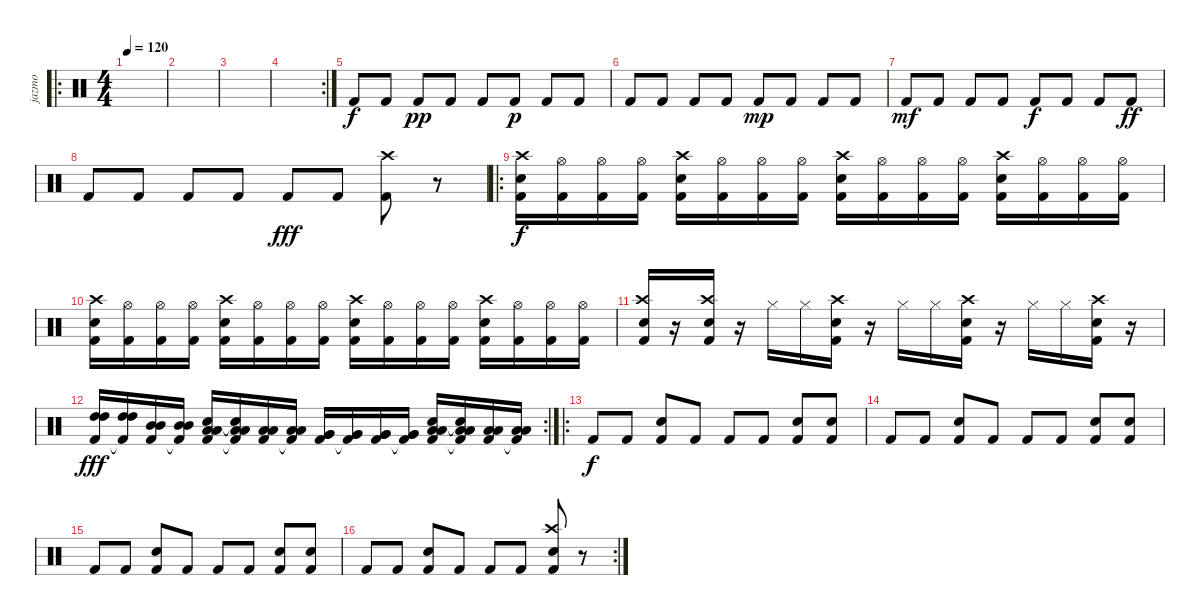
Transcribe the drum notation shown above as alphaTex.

\track ("jazmo" "jazmo") {instrument percussion}
\staff {score}
\articulation defaults
\ro
\ts (4 4)
\tempo 120
\clef neutral
\ks c
|
|
|
\rc 2
|
"Kick (hit) 2".8 "Kick (hit) 2".8 "Kick (hit) 2".8{dy pp} "Kick (hit) 2".8 "Kick (hit) 2".8 "Kick (hit) 2".8{dy p} "Kick (hit) 2".8 "Kick (hit) 2".8 |
"Kick (hit) 2".8 "Kick (hit) 2".8 "Kick (hit) 2".8 "Kick (hit) 2".8 "Kick (hit) 2".8{dy mp} "Kick (hit) 2".8 "Kick (hit) 2".8 "Kick (hit) 2".8 |
"Kick (hit) 2".8{dy mf} "Kick (hit) 2".8 "Kick (hit) 2".8 "Kick (hit) 2".8 "Kick (hit) 2".8{dy f} "Kick (hit) 2".8 "Kick (hit) 2".8 "Kick (hit) 2".8{dy ff} |
"Kick (hit) 2".8 "Kick (hit) 2".8 "Kick (hit) 2".8 "Kick (hit) 2".8 "Kick (hit) 2".8{dy fff} "Kick (hit) 2".8 ("Crash high (hit)" "Kick (hit) 2").8 r.8 |
\ro
("Crash high (hit)" "Electric Snare (hit)" "Kick (hit) 2").16{dy f} ("Hi-Hat (open)" "Kick (hit) 2").16 ("Hi-Hat (open)" "Kick (hit) 2").16 ("Hi-Hat (open)" "Kick (hit) 2").16 ("Crash high (hit)" "Electric Snare (hit)" "Kick (hit) 2").16 ("Hi-Hat (open)" "Kick (hit) 2").16 ("Hi-Hat (open)" "Kick (hit) 2").16 ("Hi-Hat (open)" "Kick (hit) 2").16 ("Crash high (hit)" "Electric Snare (hit)" "Kick (hit) 2").16 ("Hi-Hat (open)" "Kick (hit) 2").16 ("Hi-Hat (open)" "Kick (hit) 2").16 ("Hi-Hat (open)" "Kick (hit) 2").16 ("Crash high (hit)" "Electric Snare (hit)" "Kick (hit) 2").16 ("Hi-Hat (open)" "Kick (hit) 2").16 ("Hi-Hat (open)" "Kick (hit) 2").16 ("Hi-Hat (open)" "Kick (hit) 2").16 |
("Crash high (hit)" "Electric Snare (hit)" "Kick (hit) 2").16 ("Hi-Hat (open)" "Kick (hit) 2").16 ("Hi-Hat (open)" "Kick (hit) 2").16 ("Hi-Hat (open)" "Kick (hit) 2").16 ("Crash high (hit)" "Electric Snare (hit)" "Kick (hit) 2").16 ("Hi-Hat (open)" "Kick (hit) 2").16 ("Hi-Hat (open)" "Kick (hit) 2").16 ("Hi-Hat (open)" "Kick (hit) 2").16 ("Crash high (hit)" "Electric Snare (hit)" "Kick (hit) 2").16 ("Hi-Hat (open)" "Kick (hit) 2").16 ("Hi-Hat (open)" "Kick (hit) 2").16 ("Hi-Hat (open)" "Kick (hit) 2").16 ("Crash high (hit)" "Electric Snare (hit)" "Kick (hit) 2").16 ("Hi-Hat (open)" "Kick (hit) 2").16 ("Hi-Hat (open)" "Kick (hit) 2").16 ("Hi-Hat (open)" "Kick (hit) 2").16 |
("Crash high (hit)" "Electric Snare (hit)" "Kick (hit) 2").16 r.16 ("Crash high (hit)" "Electric Snare (hit)" "Kick (hit) 2").16 r.16 "Hi-Hat (closed)".16 "Hi-Hat (closed)".16 ("Crash high (hit)" "Electric Snare (hit)" "Kick (hit) 2").16 r.16 "Hi-Hat (closed)".16 "Hi-Hat (closed)".16 ("Crash high (hit)" "Electric Snare (hit)" "Kick (hit) 2").16 r.16 "Hi-Hat (closed)".16 "Hi-Hat (closed)".16 ("Crash high (hit)" "Electric Snare (hit)" "Kick (hit) 2").16 r.16 |
\rc 2
("High Tom (hit)" "High Tom (hit)" "Kick (hit) 2").16{dy fff} ("High Tom (hit)" "High Tom (hit)" "Kick (hit) 2"{t}).16 ("Mid Tom (hit)" "Mid Tom (hit)" "Kick (hit) 2").16 ("Mid Tom (hit)" "Mid Tom (hit)" "Kick (hit) 2"{t}).16 ("Low Tom (hit)" "Low Tom (hit)" "Electric Snare (hit)" "Kick (hit) 2").16 ("Low Tom (hit)" "Low Tom (hit)" "Snare (hit)"{t} "Kick (hit) 2"{t}).16 ("Low Tom (hit)" "Low Tom (hit)" "Kick (hit) 2").16 ("Low Tom (hit)" "Low Tom (hit)" "Kick (hit) 2"{t}).16 ("Very Low Tom (hit)" "Very Low Tom (hit)" "Kick (hit) 2").16 ("Very Low Tom (hit)" "Very Low Tom (hit)" "Kick (hit) 2"{t}).16 ("Very Low Tom (hit)" "Very Low Tom (hit)" "Kick (hit) 2").16 ("Very Low Tom (hit)" "Very Low Tom (hit)" "Kick (hit) 2"{t}).16 ("Low Floor Tom (hit)" "Low Floor Tom (hit)" "Electric Snare (hit)" "Kick (hit) 2").16 ("Low Floor Tom (hit)" "Low Floor Tom (hit)" "Electric Snare (hit)"{t} "Kick (hit) 2"{t}).16 ("Low Floor Tom (hit)" "Low Floor Tom (hit)" "Kick (hit) 2").16 ("Low Floor Tom (hit)" "Low Floor Tom (hit)" "Kick (hit) 2"{t}).16 |
\ro "Kick (hit) 2".8{dy f} "Kick (hit) 2".8
("Electric Snare (hit)" "Kick (hit) 2").8 "Kick (hit) 2".8 "Kick (hit) 2".8 "Kick (hit) 2".8 ("Electric Snare (hit)" "Kick (hit) 2").8 ("Electric Snare (hit)" "Kick (hit) 2").8 |
"Kick (hit) 2".8 "Kick (hit) 2".8 ("Electric Snare (hit)" "Kick (hit) 2").8 "Kick (hit) 2".8 "Kick (hit) 2".8 "Kick (hit) 2".8 ("Electric Snare (hit)" "Kick (hit) 2").8 ("Electric Snare (hit)" "Kick (hit) 2").8 |
"Kick (hit) 2".8 "Kick (hit) 2".8 ("Electric Snare (hit)" "Kick (hit) 2").8 "Kick (hit) 2".8 "Kick (hit) 2".8 "Kick (hit) 2".8 ("Electric Snare (hit)" "Kick (hit) 2").8 ("Electric Snare (hit)" "Kick (hit) 2").8 |
\rc 2 "Kick (hit) 2".8 "Kick (hit) 2".8
("Electric Snare (hit)" "Kick (hit) 2").8 "Kick (hit) 2".8 "Kick (hit) 2".8 "Kick (hit) 2".8 ("Crash high (hit)" "Electric Snare (hit)" "Kick (hit) 2").8 r.8
